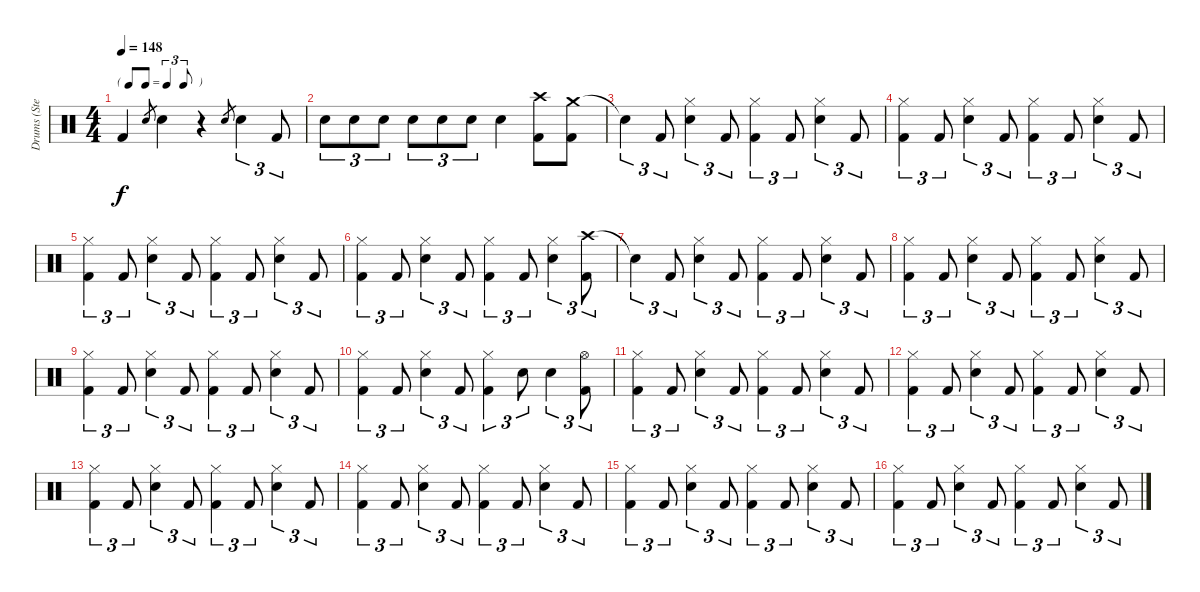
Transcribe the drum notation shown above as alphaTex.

\track ("Drums (Steven)" "Drums (Ste") {instrument percussion}
\staff {score}
\articulation defaults
\ts (4 4)
\tf triplet8th
\tempo 148
\clef neutral
\ks c "Kick (hit) 2".4{dy f} "Snare (hit) 2".8{gr} "Snare (hit) 2".4
r.4 "Snare (hit) 2".8{gr} "Snare (hit) 2".4{tu (3 2)} "Kick (hit) 2".8{tu (3 2)} |
"Snare (hit) 2".8{tu (3 2)} "Snare (hit) 2".8{tu (3 2)} "Snare (hit) 2".8{tu (3 2)} "Snare (hit) 2".8{tu (3 2)} "Snare (hit) 2".8{tu (3 2)} "Snare (hit) 2".8{tu (3 2)} "Snare (hit) 2".4 ("Crash high (hit)" "Kick (hit) 2").8 ("Crash medium (hit)" "Kick (hit) 2").8 |
"Snare (hit)"{t}.4{tu (3 2)} "Kick (hit) 2".8{tu (3 2)} ("Hi-Hat (closed)" "Snare (hit) 2").4{tu (3 2)} "Kick (hit) 2".8{tu (3 2)} ("Hi-Hat (closed)" "Kick (hit) 2").4{tu (3 2)} "Kick (hit) 2".8{tu (3 2)} ("Hi-Hat (closed)" "Snare (hit) 2").4{tu (3 2)} "Kick (hit) 2".8{tu (3 2)} |
("Hi-Hat (closed)" "Kick (hit) 2").4{tu (3 2)} "Kick (hit) 2".8{tu (3 2)} ("Hi-Hat (closed)" "Snare (hit) 2").4{tu (3 2)} "Kick (hit) 2".8{tu (3 2)} ("Hi-Hat (closed)" "Kick (hit) 2").4{tu (3 2)} "Kick (hit) 2".8{tu (3 2)} ("Hi-Hat (closed)" "Snare (hit) 2").4{tu (3 2)} "Kick (hit) 2".8{tu (3 2)} |
("Hi-Hat (closed)" "Kick (hit) 2").4{tu (3 2)} "Kick (hit) 2".8{tu (3 2)} ("Hi-Hat (closed)" "Snare (hit) 2").4{tu (3 2)} "Kick (hit) 2".8{tu (3 2)} ("Hi-Hat (closed)" "Kick (hit) 2").4{tu (3 2)} "Kick (hit) 2".8{tu (3 2)} ("Hi-Hat (closed)" "Snare (hit) 2").4{tu (3 2)} "Kick (hit) 2".8{tu (3 2)} |
("Hi-Hat (closed)" "Kick (hit) 2").4{tu (3 2)} "Kick (hit) 2".8{tu (3 2)} ("Hi-Hat (closed)" "Snare (hit) 2").4{tu (3 2)} "Kick (hit) 2".8{tu (3 2)} ("Hi-Hat (closed)" "Kick (hit) 2").4{tu (3 2)} "Kick (hit) 2".8{tu (3 2)} ("Hi-Hat (closed)" "Snare (hit) 2").4{tu (3 2)} ("Crash high (hit)" "Kick (hit) 2").8{tu (3 2)} |
"Snare (hit)"{t}.4{tu (3 2)} "Kick (hit) 2".8{tu (3 2)} ("Hi-Hat (closed)" "Snare (hit) 2").4{tu (3 2)} "Kick (hit) 2".8{tu (3 2)} ("Hi-Hat (closed)" "Kick (hit) 2").4{tu (3 2)} "Kick (hit) 2".8{tu (3 2)} ("Hi-Hat (closed)" "Snare (hit) 2").4{tu (3 2)} "Kick (hit) 2".8{tu (3 2)} |
("Hi-Hat (closed)" "Kick (hit) 2").4{tu (3 2)} "Kick (hit) 2".8{tu (3 2)} ("Hi-Hat (closed)" "Snare (hit) 2").4{tu (3 2)} "Kick (hit) 2".8{tu (3 2)} ("Hi-Hat (closed)" "Kick (hit) 2").4{tu (3 2)} "Kick (hit) 2".8{tu (3 2)} ("Hi-Hat (closed)" "Snare (hit) 2").4{tu (3 2)} "Kick (hit) 2".8{tu (3 2)} |
("Hi-Hat (closed)" "Kick (hit) 2").4{tu (3 2)} "Kick (hit) 2".8{tu (3 2)} ("Hi-Hat (closed)" "Snare (hit) 2").4{tu (3 2)} "Kick (hit) 2".8{tu (3 2)} ("Hi-Hat (closed)" "Kick (hit) 2").4{tu (3 2)} "Kick (hit) 2".8{tu (3 2)} ("Hi-Hat (closed)" "Snare (hit) 2").4{tu (3 2)} "Kick (hit) 2".8{tu (3 2)} |
("Hi-Hat (closed)" "Kick (hit) 2").4{tu (3 2)} "Kick (hit) 2".8{tu (3 2)} ("Hi-Hat (closed)" "Snare (hit) 2").4{tu (3 2)} "Kick (hit) 2".8{tu (3 2)} ("Hi-Hat (closed)" "Kick (hit) 2").4{tu (3 2)} "Snare (hit) 2".8{tu (3 2)} "Snare (hit) 2".4{tu (3 2)} ("Hi-Hat (open)" "Kick (hit) 2").8{tu (3 2)} |
("Hi-Hat (closed)" "Kick (hit) 2").4{tu (3 2)} "Kick (hit) 2".8{tu (3 2)} ("Hi-Hat (closed)" "Snare (hit) 2").4{tu (3 2)} "Kick (hit) 2".8{tu (3 2)} ("Hi-Hat (closed)" "Kick (hit) 2").4{tu (3 2)} "Kick (hit) 2".8{tu (3 2)} ("Hi-Hat (closed)" "Snare (hit) 2").4{tu (3 2)} "Kick (hit) 2".8{tu (3 2)} |
("Hi-Hat (closed)" "Kick (hit) 2").4{tu (3 2)} "Kick (hit) 2".8{tu (3 2)} ("Hi-Hat (closed)" "Snare (hit) 2").4{tu (3 2)} "Kick (hit) 2".8{tu (3 2)} ("Hi-Hat (closed)" "Kick (hit) 2").4{tu (3 2)} "Kick (hit) 2".8{tu (3 2)} ("Hi-Hat (closed)" "Snare (hit) 2").4{tu (3 2)} "Kick (hit) 2".8{tu (3 2)} |
("Hi-Hat (closed)" "Kick (hit) 2").4{tu (3 2)} "Kick (hit) 2".8{tu (3 2)} ("Hi-Hat (closed)" "Snare (hit) 2").4{tu (3 2)} "Kick (hit) 2".8{tu (3 2)} ("Hi-Hat (closed)" "Kick (hit) 2").4{tu (3 2)} "Kick (hit) 2".8{tu (3 2)} ("Hi-Hat (closed)" "Snare (hit) 2").4{tu (3 2)} "Kick (hit) 2".8{tu (3 2)} |
("Hi-Hat (closed)" "Kick (hit) 2").4{tu (3 2)} "Kick (hit) 2".8{tu (3 2)} ("Hi-Hat (closed)" "Snare (hit) 2").4{tu (3 2)} "Kick (hit) 2".8{tu (3 2)} ("Hi-Hat (closed)" "Kick (hit) 2").4{tu (3 2)} "Kick (hit) 2".8{tu (3 2)} ("Hi-Hat (closed)" "Snare (hit) 2").4{tu (3 2)} "Kick (hit) 2".8{tu (3 2)} |
("Hi-Hat (closed)" "Kick (hit) 2").4{tu (3 2)} "Kick (hit) 2".8{tu (3 2)} ("Hi-Hat (closed)" "Snare (hit) 2").4{tu (3 2)} "Kick (hit) 2".8{tu (3 2)} ("Hi-Hat (closed)" "Kick (hit) 2").4{tu (3 2)} "Kick (hit) 2".8{tu (3 2)} ("Hi-Hat (closed)" "Snare (hit) 2").4{tu (3 2)} "Kick (hit) 2".8{tu (3 2)} |
("Hi-Hat (closed)" "Kick (hit) 2").4{tu (3 2)} "Kick (hit) 2".8{tu (3 2)} ("Hi-Hat (closed)" "Snare (hit) 2").4{tu (3 2)} "Kick (hit) 2".8{tu (3 2)} ("Hi-Hat (closed)" "Kick (hit) 2").4{tu (3 2)} "Kick (hit) 2".8{tu (3 2)} ("Hi-Hat (closed)" "Snare (hit) 2").4{tu (3 2)} "Kick (hit) 2".8{tu (3 2)}
